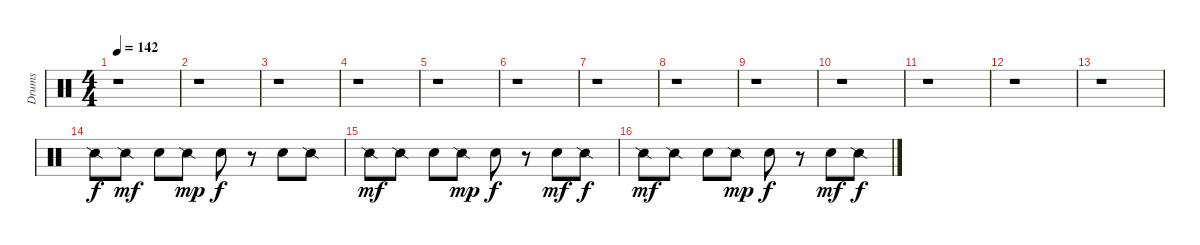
\track ("Drums" "Drums") {instrument percussion}
\staff {score}
\articulation defaults
\ts (4 4)
\tempo 142
\clef neutral
\ks c
r.1{dy f} |
r.1 |
r.1 |
r.1 |
r.1 |
r.1 |
r.1 |
r.1 |
r.1 |
r.1 |
r.1 |
r.1 |
r.1 |
"Snare (side stick) 2".8 "Snare (side stick) 2".8{dy mf} "Electric Snare (hit)".8 "Snare (side stick) 2".8{dy mp} "Electric Snare (hit)".8{dy f} r.8 "Electric Snare (hit)".8 "Snare (side stick) 2".8 |
"Snare (side stick) 2".8{dy mf} "Snare (side stick) 2".8 "Electric Snare (hit)".8 "Snare (side stick) 2".8{dy mp} "Electric Snare (hit)".8{dy f} r.8 "Electric Snare (hit)".8{dy mf} "Snare (side stick) 2".8{dy f} |
"Snare (side stick) 2".8{dy mf} "Snare (side stick) 2".8 "Electric Snare (hit)".8 "Snare (side stick) 2".8{dy mp} "Electric Snare (hit)".8{dy f} r.8 "Electric Snare (hit)".8{dy mf} "Snare (side stick) 2".8{dy f}
